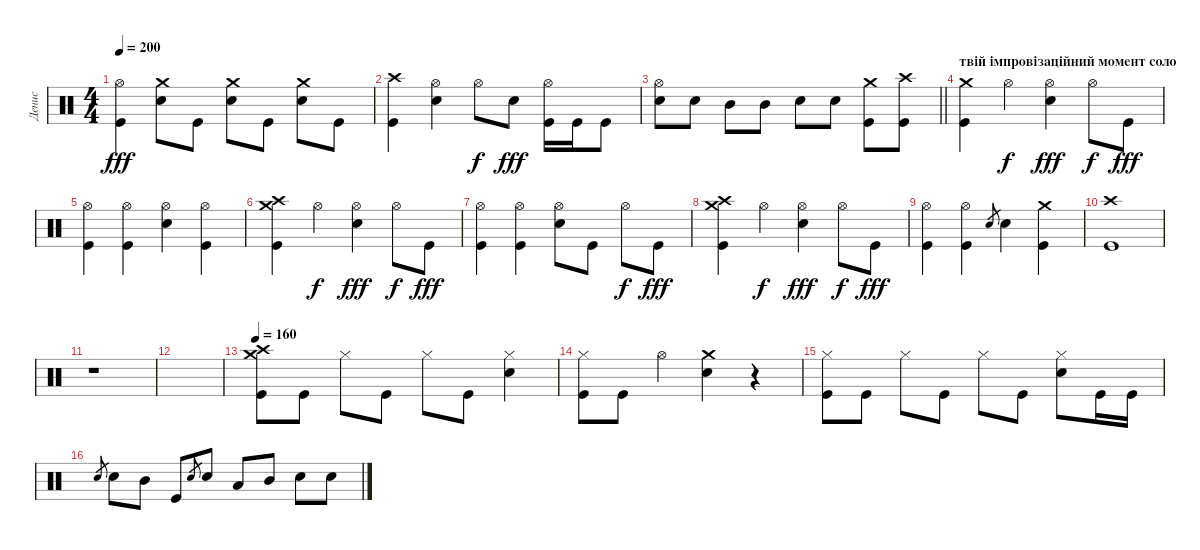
\track ("Денис" "Денис") {instrument percussion}
\staff {score}
\articulation defaults
\ts (4 4)
\tempo 200
\clef neutral
\ks c
("Kick (hit)" "Hi-Hat (open)").4{dy fff} ("Electric Snare (hit)" "Crash medium (hit)").8 "Kick (hit)".8 ("Electric Snare (hit)" "Crash medium (hit)").8 "Kick (hit)".8 ("Electric Snare (hit)" "Crash medium (hit)").8 "Kick (hit)".8 |
("Crash high (hit)" "Kick (hit)").4 ("Electric Snare (hit)" "Hi-Hat (open)").4 "Hi-Hat (open)".8{dy f} "Electric Snare (hit)".8{dy fff} ("Kick (hit)" "Hi-Hat (open)").16 "Kick (hit)".16 "Kick (hit)".8 |
\barLineRight lightlight
("Electric Snare (hit)" "Hi-Hat (open)").8 "Electric Snare (hit)".8 "Mid Tom (hit)".8 "Mid Tom (hit)".8 "Electric Snare (hit)".8 "Electric Snare (hit)".8 ("Crash medium (hit)" "Kick (hit)").8 ("Crash high (hit)" "Kick (hit)").8 |
\section ("" "твій імпровізаційний момент соло")
("Crash medium (hit)" "Kick (hit)").4 "Hi-Hat (open)".4{dy f} ("Hi-Hat (open)" "Electric Snare (hit)").4{dy fff} "Hi-Hat (open)".8{dy f} "Kick (hit)".8{dy fff} |
("Kick (hit)" "Hi-Hat (open)").4 ("Kick (hit)" "Hi-Hat (open)").4 ("Electric Snare (hit)" "Hi-Hat (open)").4 ("Kick (hit)" "Hi-Hat (open)").4 |
("Crash high (hit)" "Crash medium (hit)" "Kick (hit)").4 "Hi-Hat (open)".4{dy f} ("Electric Snare (hit)" "Hi-Hat (open)").4{dy fff} "Hi-Hat (open)".8{dy f} "Kick (hit)".8{dy fff} |
("Hi-Hat (open)" "Kick (hit)").4 ("Kick (hit)" "Hi-Hat (open)").4 ("Electric Snare (hit)" "Hi-Hat (open)").8 "Kick (hit)".8 "Hi-Hat (open)".8{dy f} "Kick (hit)".8{dy fff} |
("Crash medium (hit)" "Crash high (hit)" "Kick (hit)").4 "Hi-Hat (open)".4{dy f} ("Electric Snare (hit)" "Hi-Hat (open)").4{dy fff} "Hi-Hat (open)".8{dy f} "Kick (hit)".8{dy fff} |
("Kick (hit)" "Hi-Hat (open)").4 ("Kick (hit)" "Hi-Hat (open)").4 "Electric Snare (hit)".8{gr} "Electric Snare (hit)".4 ("Crash medium (hit)" "Kick (hit)").4 |
("Crash high (hit)" "Kick (hit)").1 |
r.1 |
|
\tempo 160
("Kick (hit)" "Crash medium (hit)" "Crash high (hit)").8 "Kick (hit)".8 "Hi-Hat (closed)".8 "Kick (hit)".8 "Hi-Hat (closed)".8 "Kick (hit)".8 ("Electric Snare (hit)" "Hi-Hat (closed)").4 |
("Kick (hit)" "Hi-Hat (closed)").8 "Kick (hit)".8 "Hi-Hat (open)".4 ("Electric Snare (hit)" "Crash medium (hit)").4 r.4 |
("Kick (hit)" "Hi-Hat (closed)").8 "Kick (hit)".8 "Hi-Hat (closed)".8 "Kick (hit)".8 "Hi-Hat (closed)".8 "Kick (hit)".8 ("Electric Snare (hit)" "Hi-Hat (closed)").8 "Kick (hit)".16 "Kick (hit)".16 |
"Electric Snare (hit)".8{gr} "Electric Snare (hit)".8 "Mid Tom (hit)".8 "Kick (hit)".8 "Electric Snare (hit)".8{gr} "Electric Snare (hit)".8 "Low Tom (hit)".8 "Mid Tom (hit)".8 "Electric Snare (hit)".8 "Electric Snare (hit)".8
